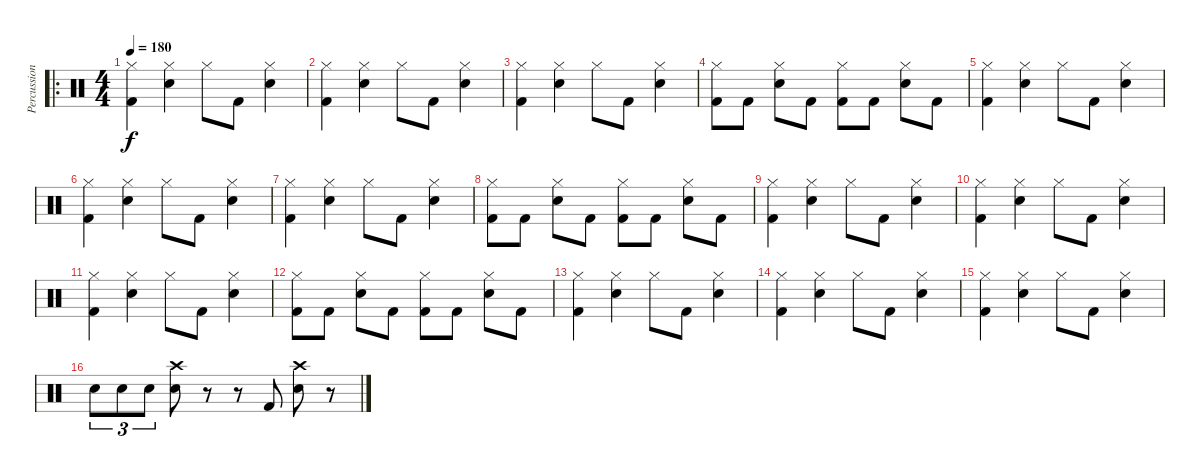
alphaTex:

\track ("Percussion" "Percussion") {instrument percussion}
\staff {score}
\articulation defaults
\ro
\ts (4 4)
\tempo 180
\clef neutral
\ks c
("Hi-Hat (closed)" "Kick (hit) 2").4{dy f} ("Hi-Hat (closed)" "Snare (hit) 2").4 "Hi-Hat (closed)".8 "Kick (hit) 2".8 ("Hi-Hat (closed)" "Snare (hit) 2").4 |
("Hi-Hat (closed)" "Kick (hit) 2").4 ("Hi-Hat (closed)" "Snare (hit) 2").4 "Hi-Hat (closed)".8 "Kick (hit) 2".8 ("Hi-Hat (closed)" "Snare (hit) 2").4 |
("Hi-Hat (closed)" "Kick (hit) 2").4 ("Hi-Hat (closed)" "Snare (hit) 2").4 "Hi-Hat (closed)".8 "Kick (hit) 2".8 ("Hi-Hat (closed)" "Snare (hit) 2").4 |
("Hi-Hat (closed)" "Kick (hit) 2").8 "Kick (hit) 2".8 ("Hi-Hat (closed)" "Snare (hit) 2").8 "Kick (hit) 2".8 ("Hi-Hat (closed)" "Kick (hit) 2").8 "Kick (hit) 2".8 ("Hi-Hat (closed)" "Snare (hit) 2").8 "Kick (hit) 2".8 |
("Hi-Hat (closed)" "Kick (hit) 2").4 ("Hi-Hat (closed)" "Snare (hit) 2").4 "Hi-Hat (closed)".8 "Kick (hit) 2".8 ("Hi-Hat (closed)" "Snare (hit) 2").4 |
("Hi-Hat (closed)" "Kick (hit) 2").4 ("Hi-Hat (closed)" "Snare (hit) 2").4 "Hi-Hat (closed)".8 "Kick (hit) 2".8 ("Hi-Hat (closed)" "Snare (hit) 2").4 |
("Hi-Hat (closed)" "Kick (hit) 2").4 ("Hi-Hat (closed)" "Snare (hit) 2").4 "Hi-Hat (closed)".8 "Kick (hit) 2".8 ("Hi-Hat (closed)" "Snare (hit) 2").4 |
("Hi-Hat (closed)" "Kick (hit) 2").8 "Kick (hit) 2".8 ("Hi-Hat (closed)" "Snare (hit) 2").8 "Kick (hit) 2".8 ("Hi-Hat (closed)" "Kick (hit) 2").8 "Kick (hit) 2".8 ("Hi-Hat (closed)" "Snare (hit) 2").8 "Kick (hit) 2".8 |
("Hi-Hat (closed)" "Kick (hit) 2").4 ("Hi-Hat (closed)" "Snare (hit) 2").4 "Hi-Hat (closed)".8 "Kick (hit) 2".8 ("Hi-Hat (closed)" "Snare (hit) 2").4 |
("Hi-Hat (closed)" "Kick (hit) 2").4 ("Hi-Hat (closed)" "Snare (hit) 2").4 "Hi-Hat (closed)".8 "Kick (hit) 2".8 ("Hi-Hat (closed)" "Snare (hit) 2").4 |
("Hi-Hat (closed)" "Kick (hit) 2").4 ("Hi-Hat (closed)" "Snare (hit) 2").4 "Hi-Hat (closed)".8 "Kick (hit) 2".8 ("Hi-Hat (closed)" "Snare (hit) 2").4 |
("Hi-Hat (closed)" "Kick (hit) 2").8 "Kick (hit) 2".8 ("Hi-Hat (closed)" "Snare (hit) 2").8 "Kick (hit) 2".8 ("Hi-Hat (closed)" "Kick (hit) 2").8 "Kick (hit) 2".8 ("Hi-Hat (closed)" "Snare (hit) 2").8 "Kick (hit) 2".8 |
("Hi-Hat (closed)" "Kick (hit) 2").4 ("Hi-Hat (closed)" "Snare (hit) 2").4 "Hi-Hat (closed)".8 "Kick (hit) 2".8 ("Hi-Hat (closed)" "Snare (hit) 2").4 |
("Hi-Hat (closed)" "Kick (hit) 2").4 ("Hi-Hat (closed)" "Snare (hit) 2").4 "Hi-Hat (closed)".8 "Kick (hit) 2".8 ("Hi-Hat (closed)" "Snare (hit) 2").4 |
("Hi-Hat (closed)" "Kick (hit) 2").4 ("Hi-Hat (closed)" "Snare (hit) 2").4 "Hi-Hat (closed)".8 "Kick (hit) 2".8 ("Hi-Hat (closed)" "Snare (hit) 2").4 |
"Snare (hit) 2".8{tu (3 2)} "Snare (hit) 2".8{tu (3 2)} "Snare (hit) 2".8{tu (3 2)} ("Crash high (hit)" "Snare (hit) 2").8 r.8 r.8 "Kick (hit) 2".8 ("Crash high (hit)" "Snare (hit) 2").8 r.8
